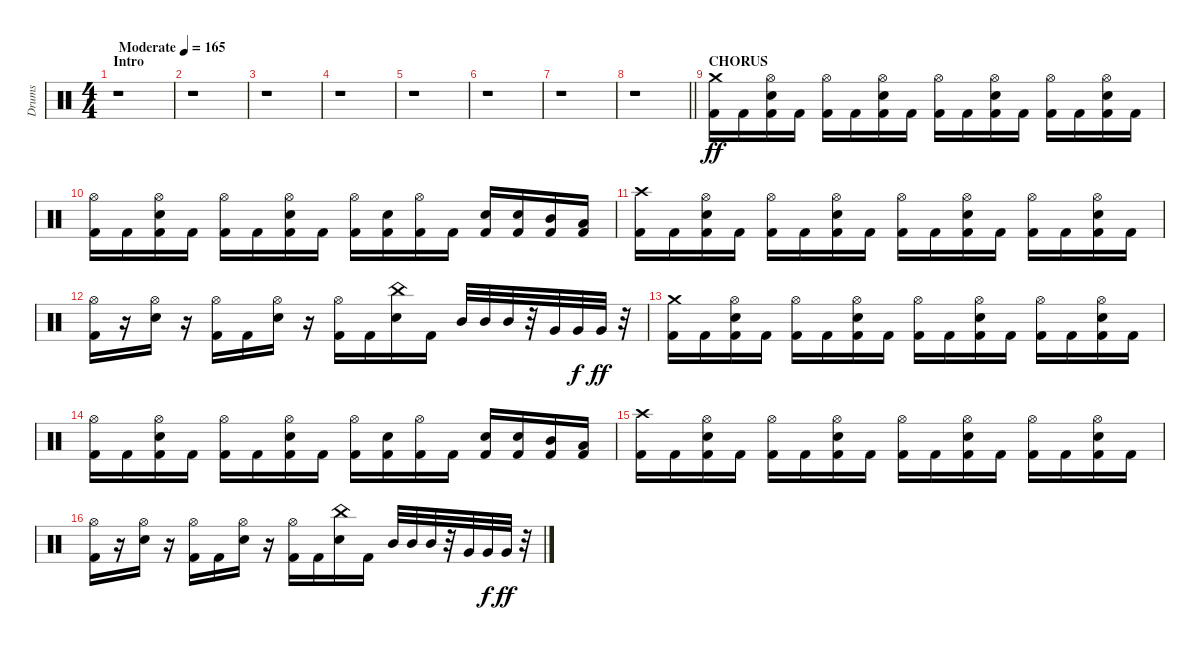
\track ("Drums" "Drums") {instrument percussion}
\staff {score}
\articulation defaults
\ts (4 4)
\section ("" "Intro")
\tempo (165 "Moderate")
\clef neutral
\ks c
r.1{dy ff} |
r.1 |
r.1 |
r.1 |
r.1 |
r.1 |
r.1 |
\barLineRight lightlight
r.1 |
\section ("" "CHORUS")
("Kick (hit) 2" "Crash medium (hit)").16 "Kick (hit) 2".16 ("Kick (hit) 2" "Snare (hit) 2" "Hi-Hat (open)").16 "Kick (hit) 2".16 ("Kick (hit) 2" "Hi-Hat (open)").16 "Kick (hit) 2".16 ("Kick (hit) 2" "Snare (hit) 2" "Hi-Hat (open)").16 "Kick (hit) 2".16 ("Kick (hit) 2" "Hi-Hat (open)").16 "Kick (hit) 2".16 ("Kick (hit) 2" "Snare (hit) 2" "Hi-Hat (open)").16 "Kick (hit) 2".16 ("Kick (hit) 2" "Hi-Hat (open)").16 "Kick (hit) 2".16 ("Kick (hit) 2" "Snare (hit) 2" "Hi-Hat (open)").16 "Kick (hit) 2".16 |
("Kick (hit) 2" "Hi-Hat (open)").16 "Kick (hit) 2".16 ("Kick (hit) 2" "Snare (hit) 2" "Hi-Hat (open)").16 "Kick (hit) 2".16 ("Kick (hit) 2" "Hi-Hat (open)").16 "Kick (hit) 2".16 ("Kick (hit) 2" "Snare (hit) 2" "Hi-Hat (open)").16 "Kick (hit) 2".16 ("Kick (hit) 2" "Hi-Hat (open)").16 ("Kick (hit) 2" "Snare (hit) 2").16 ("Kick (hit) 2" "Hi-Hat (open)").16 "Kick (hit) 2".16 ("Kick (hit) 2" "Snare (hit) 2").16 ("Kick (hit) 2" "Snare (hit) 2").16 ("Kick (hit) 2" "Mid Tom (hit)").16 ("Kick (hit) 2" "Low Tom (hit)").16 |
("Kick (hit) 2" "Crash high (hit)").16 "Kick (hit) 2".16 ("Kick (hit) 2" "Snare (hit) 2" "Hi-Hat (open)").16 "Kick (hit) 2".16 ("Kick (hit) 2" "Hi-Hat (open)").16 "Kick (hit) 2".16 ("Kick (hit) 2" "Snare (hit) 2" "Hi-Hat (open)").16 "Kick (hit) 2".16 ("Kick (hit) 2" "Hi-Hat (open)").16 "Kick (hit) 2".16 ("Kick (hit) 2" "Snare (hit) 2" "Hi-Hat (open)").16 "Kick (hit) 2".16 ("Kick (hit) 2" "Hi-Hat (open)").16 "Kick (hit) 2".16 ("Kick (hit) 2" "Snare (hit) 2" "Hi-Hat (open)").16 "Kick (hit) 2".16 |
("Kick (hit) 2" "Hi-Hat (open)").16 r.16 ("Snare (hit) 2" "Hi-Hat (open)").16 r.16 ("Kick (hit) 2" "Hi-Hat (open)").16 "Kick (hit) 2".16 ("Snare (hit) 2" "Hi-Hat (open)").16 r.16 ("Kick (hit) 2" "Hi-Hat (open)").16 "Kick (hit) 2".16 ("Snare (hit) 2" "China (hit)").16 "Kick (hit) 2".16 "Mid Tom (hit)".32 "Mid Tom (hit)".32 "Mid Tom (hit)".32 r.32 "Very Low Tom (hit)".32 "Very Low Tom (hit)".32{dy f} "Very Low Tom (hit)".32{dy ff} r.32 |
("Kick (hit) 2" "Crash medium (hit)").16 "Kick (hit) 2".16 ("Kick (hit) 2" "Snare (hit) 2" "Hi-Hat (open)").16 "Kick (hit) 2".16 ("Kick (hit) 2" "Hi-Hat (open)").16 "Kick (hit) 2".16 ("Kick (hit) 2" "Snare (hit) 2" "Hi-Hat (open)").16 "Kick (hit) 2".16 ("Kick (hit) 2" "Hi-Hat (open)").16 "Kick (hit) 2".16 ("Kick (hit) 2" "Snare (hit) 2" "Hi-Hat (open)").16 "Kick (hit) 2".16 ("Kick (hit) 2" "Hi-Hat (open)").16 "Kick (hit) 2".16 ("Kick (hit) 2" "Snare (hit) 2" "Hi-Hat (open)").16 "Kick (hit) 2".16 |
("Kick (hit) 2" "Hi-Hat (open)").16 "Kick (hit) 2".16 ("Kick (hit) 2" "Snare (hit) 2" "Hi-Hat (open)").16 "Kick (hit) 2".16 ("Kick (hit) 2" "Hi-Hat (open)").16 "Kick (hit) 2".16 ("Kick (hit) 2" "Snare (hit) 2" "Hi-Hat (open)").16 "Kick (hit) 2".16 ("Kick (hit) 2" "Hi-Hat (open)").16 ("Kick (hit) 2" "Snare (hit) 2").16 ("Kick (hit) 2" "Hi-Hat (open)").16 "Kick (hit) 2".16 ("Kick (hit) 2" "Snare (hit) 2").16 ("Kick (hit) 2" "Snare (hit) 2").16 ("Kick (hit) 2" "Mid Tom (hit)").16 ("Kick (hit) 2" "Low Tom (hit)").16 |
("Kick (hit) 2" "Crash high (hit)").16 "Kick (hit) 2".16 ("Kick (hit) 2" "Snare (hit) 2" "Hi-Hat (open)").16 "Kick (hit) 2".16 ("Kick (hit) 2" "Hi-Hat (open)").16 "Kick (hit) 2".16 ("Kick (hit) 2" "Snare (hit) 2" "Hi-Hat (open)").16 "Kick (hit) 2".16 ("Kick (hit) 2" "Hi-Hat (open)").16 "Kick (hit) 2".16 ("Kick (hit) 2" "Snare (hit) 2" "Hi-Hat (open)").16 "Kick (hit) 2".16 ("Kick (hit) 2" "Hi-Hat (open)").16 "Kick (hit) 2".16 ("Kick (hit) 2" "Snare (hit) 2" "Hi-Hat (open)").16 "Kick (hit) 2".16 |
("Kick (hit) 2" "Hi-Hat (open)").16 r.16 ("Snare (hit) 2" "Hi-Hat (open)").16 r.16 ("Kick (hit) 2" "Hi-Hat (open)").16 "Kick (hit) 2".16 ("Snare (hit) 2" "Hi-Hat (open)").16 r.16 ("Kick (hit) 2" "Hi-Hat (open)").16 "Kick (hit) 2".16 ("Snare (hit) 2" "China (hit)").16 "Kick (hit) 2".16 "Mid Tom (hit)".32 "Mid Tom (hit)".32 "Mid Tom (hit)".32 r.32 "Very Low Tom (hit)".32 "Very Low Tom (hit)".32{dy f} "Very Low Tom (hit)".32{dy ff} r.32
